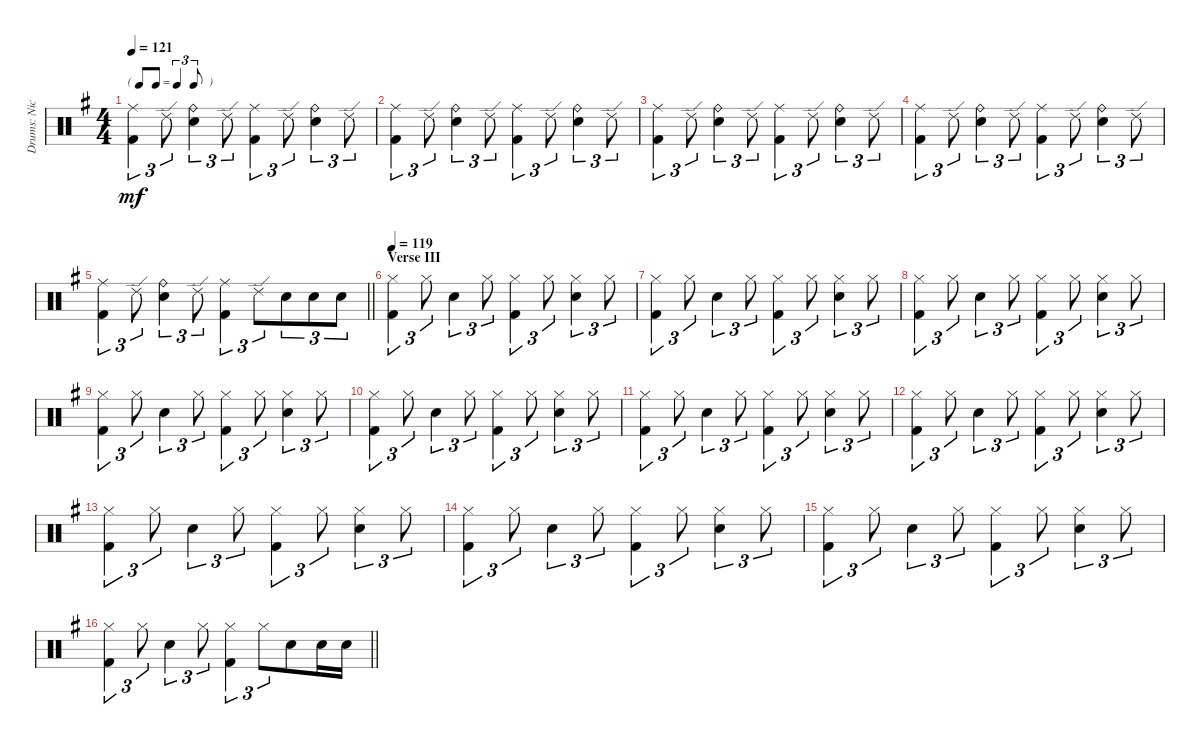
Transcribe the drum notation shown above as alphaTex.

\track ("Drums: Nick" "Drums: Nic") {instrument percussion}
\staff {score}
\articulation defaults
\ts (4 4)
\tf triplet8th
\tempo 121
\clef neutral
\ks g
("Ride (middle)" "Kick (hit) 2").4{tu (3 2) dy mf} "Ride (edge) 2".8{tu (3 2)} ("Ride (bell)" "Electric Snare (hit)").4{tu (3 2)} "Ride (edge) 2".8{tu (3 2)} ("Ride (middle)" "Kick (hit) 2").4{tu (3 2)} "Ride (edge) 2".8{tu (3 2)} ("Ride (bell)" "Electric Snare (hit)").4{tu (3 2)} "Ride (edge) 2".8{tu (3 2)} |
("Ride (middle)" "Kick (hit) 2").4{tu (3 2)} "Ride (edge) 2".8{tu (3 2)} ("Ride (bell)" "Electric Snare (hit)").4{tu (3 2)} "Ride (edge) 2".8{tu (3 2)} ("Ride (middle)" "Kick (hit) 2").4{tu (3 2)} "Ride (edge) 2".8{tu (3 2)} ("Ride (bell)" "Electric Snare (hit)").4{tu (3 2)} "Ride (edge) 2".8{tu (3 2)} |
("Ride (middle)" "Kick (hit) 2").4{tu (3 2)} "Ride (edge) 2".8{tu (3 2)} ("Ride (bell)" "Electric Snare (hit)").4{tu (3 2)} "Ride (edge) 2".8{tu (3 2)} ("Ride (middle)" "Kick (hit) 2").4{tu (3 2)} "Ride (edge) 2".8{tu (3 2)} ("Ride (bell)" "Electric Snare (hit)").4{tu (3 2)} "Ride (edge) 2".8{tu (3 2)} |
("Ride (middle)" "Kick (hit) 2").4{tu (3 2)} "Ride (edge) 2".8{tu (3 2)} ("Ride (bell)" "Electric Snare (hit)").4{tu (3 2)} "Ride (edge) 2".8{tu (3 2)} ("Ride (middle)" "Kick (hit) 2").4{tu (3 2)} "Ride (edge) 2".8{tu (3 2)} ("Ride (bell)" "Electric Snare (hit)").4{tu (3 2)} "Ride (edge) 2".8{tu (3 2)} |
\barLineRight lightlight
("Ride (middle)" "Kick (hit) 2").4{tu (3 2)} "Ride (edge) 2".8{tu (3 2)} ("Ride (bell)" "Electric Snare (hit)").4{tu (3 2)} "Ride (edge) 2".8{tu (3 2)} ("Ride (middle)" "Kick (hit) 2").4{tu (3 2)} "Ride (edge) 2".8{tu (3 2) beam merge} "Electric Snare (hit)".8{tu (3 2)} "Electric Snare (hit)".8{tu (3 2)} "Electric Snare (hit)".8{tu (3 2)} |
\section ("" "Verse III")
\tempo 119
("Hi-Hat (closed)" "Kick (hit) 2").4{tu (3 2)} "Hi-Hat (closed)".8{tu (3 2)} "Electric Snare (hit)".4{tu (3 2)} "Hi-Hat (closed)".8{tu (3 2)} ("Hi-Hat (closed)" "Kick (hit) 2").4{tu (3 2)} "Hi-Hat (closed)".8{tu (3 2)} ("Hi-Hat (closed)" "Electric Snare (hit)").4{tu (3 2)} "Hi-Hat (closed)".8{tu (3 2)} |
("Hi-Hat (closed)" "Kick (hit) 2").4{tu (3 2)} "Hi-Hat (closed)".8{tu (3 2)} "Electric Snare (hit)".4{tu (3 2)} "Hi-Hat (closed)".8{tu (3 2)} ("Hi-Hat (closed)" "Kick (hit) 2").4{tu (3 2)} "Hi-Hat (closed)".8{tu (3 2)} ("Hi-Hat (closed)" "Electric Snare (hit)").4{tu (3 2)} "Hi-Hat (closed)".8{tu (3 2)} |
("Hi-Hat (closed)" "Kick (hit) 2").4{tu (3 2)} "Hi-Hat (closed)".8{tu (3 2)} "Electric Snare (hit)".4{tu (3 2)} "Hi-Hat (closed)".8{tu (3 2)} ("Hi-Hat (closed)" "Kick (hit) 2").4{tu (3 2)} "Hi-Hat (closed)".8{tu (3 2)} ("Hi-Hat (closed)" "Electric Snare (hit)").4{tu (3 2)} "Hi-Hat (closed)".8{tu (3 2)} |
("Hi-Hat (closed)" "Kick (hit) 2").4{tu (3 2)} "Hi-Hat (closed)".8{tu (3 2)} "Electric Snare (hit)".4{tu (3 2)} "Hi-Hat (closed)".8{tu (3 2)} ("Hi-Hat (closed)" "Kick (hit) 2").4{tu (3 2)} "Hi-Hat (closed)".8{tu (3 2)} ("Hi-Hat (closed)" "Electric Snare (hit)").4{tu (3 2)} "Hi-Hat (closed)".8{tu (3 2)} |
("Hi-Hat (closed)" "Kick (hit) 2").4{tu (3 2)} "Hi-Hat (closed)".8{tu (3 2)} "Electric Snare (hit)".4{tu (3 2)} "Hi-Hat (closed)".8{tu (3 2)} ("Hi-Hat (closed)" "Kick (hit) 2").4{tu (3 2)} "Hi-Hat (closed)".8{tu (3 2)} ("Hi-Hat (closed)" "Electric Snare (hit)").4{tu (3 2)} "Hi-Hat (closed)".8{tu (3 2)} |
("Hi-Hat (closed)" "Kick (hit) 2").4{tu (3 2)} "Hi-Hat (closed)".8{tu (3 2)} "Electric Snare (hit)".4{tu (3 2)} "Hi-Hat (closed)".8{tu (3 2)} ("Hi-Hat (closed)" "Kick (hit) 2").4{tu (3 2)} "Hi-Hat (closed)".8{tu (3 2)} ("Hi-Hat (closed)" "Electric Snare (hit)").4{tu (3 2)} "Hi-Hat (closed)".8{tu (3 2)} |
("Hi-Hat (closed)" "Kick (hit) 2").4{tu (3 2)} "Hi-Hat (closed)".8{tu (3 2)} "Electric Snare (hit)".4{tu (3 2)} "Hi-Hat (closed)".8{tu (3 2)} ("Hi-Hat (closed)" "Kick (hit) 2").4{tu (3 2)} "Hi-Hat (closed)".8{tu (3 2)} ("Hi-Hat (closed)" "Electric Snare (hit)").4{tu (3 2)} "Hi-Hat (closed)".8{tu (3 2)} |
("Hi-Hat (closed)" "Kick (hit) 2").4{tu (3 2)} "Hi-Hat (closed)".8{tu (3 2)} "Electric Snare (hit)".4{tu (3 2)} "Hi-Hat (closed)".8{tu (3 2)} ("Hi-Hat (closed)" "Kick (hit) 2").4{tu (3 2)} "Hi-Hat (closed)".8{tu (3 2)} ("Hi-Hat (closed)" "Electric Snare (hit)").4{tu (3 2)} "Hi-Hat (closed)".8{tu (3 2)} |
("Hi-Hat (closed)" "Kick (hit) 2").4{tu (3 2)} "Hi-Hat (closed)".8{tu (3 2)} "Electric Snare (hit)".4{tu (3 2)} "Hi-Hat (closed)".8{tu (3 2)} ("Hi-Hat (closed)" "Kick (hit) 2").4{tu (3 2)} "Hi-Hat (closed)".8{tu (3 2)} ("Hi-Hat (closed)" "Electric Snare (hit)").4{tu (3 2)} "Hi-Hat (closed)".8{tu (3 2)} |
("Hi-Hat (closed)" "Kick (hit) 2").4{tu (3 2)} "Hi-Hat (closed)".8{tu (3 2)} "Electric Snare (hit)".4{tu (3 2)} "Hi-Hat (closed)".8{tu (3 2)} ("Hi-Hat (closed)" "Kick (hit) 2").4{tu (3 2)} "Hi-Hat (closed)".8{tu (3 2)} ("Hi-Hat (closed)" "Electric Snare (hit)").4{tu (3 2)} "Hi-Hat (closed)".8{tu (3 2)} |
\barLineRight lightlight
("Hi-Hat (closed)" "Kick (hit) 2").4{tu (3 2)} "Hi-Hat (closed)".8{tu (3 2)} "Electric Snare (hit)".4{tu (3 2)} "Hi-Hat (closed)".8{tu (3 2)} ("Hi-Hat (closed)" "Kick (hit) 2").4{tu (3 2)} "Hi-Hat (closed)".8{tu (3 2) beam merge} "Electric Snare (hit)".8 "Electric Snare (hit)".16 "Electric Snare (hit)".16
